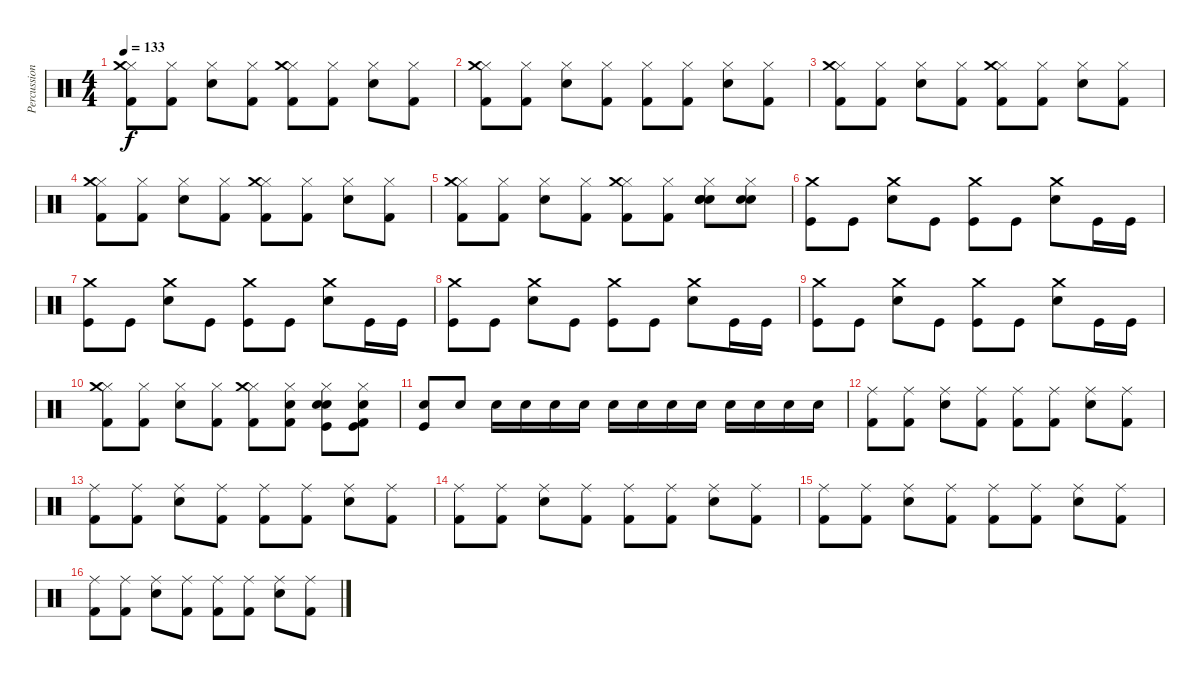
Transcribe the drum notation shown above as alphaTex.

\track ("Percussion" "Percussion") {instrument percussion}
\staff {score}
\articulation defaults
\ts (4 4)
\tempo 133
\clef neutral
\ks c
("Hi-Hat (closed)" "Kick (hit) 2" "Crash medium (hit)").8{dy f} ("Hi-Hat (closed)" "Kick (hit) 2").8 ("Electric Snare (hit)" "Hi-Hat (closed)").8 ("Hi-Hat (closed)" "Kick (hit) 2").8 ("Hi-Hat (closed)" "Kick (hit) 2" "Crash medium (hit)").8 ("Hi-Hat (closed)" "Kick (hit) 2").8 ("Electric Snare (hit)" "Hi-Hat (closed)").8 ("Hi-Hat (closed)" "Kick (hit) 2").8 |
("Hi-Hat (closed)" "Kick (hit) 2" "Crash medium (hit)").8 ("Hi-Hat (closed)" "Kick (hit) 2").8 ("Electric Snare (hit)" "Hi-Hat (closed)").8 ("Hi-Hat (closed)" "Kick (hit) 2").8 ("Hi-Hat (closed)" "Kick (hit) 2").8 ("Hi-Hat (closed)" "Kick (hit) 2").8 ("Electric Snare (hit)" "Hi-Hat (closed)").8 ("Hi-Hat (closed)" "Kick (hit) 2").8 |
("Hi-Hat (closed)" "Kick (hit) 2" "Crash medium (hit)").8 ("Hi-Hat (closed)" "Kick (hit) 2").8 ("Electric Snare (hit)" "Hi-Hat (closed)").8 ("Hi-Hat (closed)" "Kick (hit) 2").8 ("Hi-Hat (closed)" "Kick (hit) 2" "Crash medium (hit)").8 ("Hi-Hat (closed)" "Kick (hit) 2").8 ("Electric Snare (hit)" "Hi-Hat (closed)").8 ("Hi-Hat (closed)" "Kick (hit) 2").8 |
("Hi-Hat (closed)" "Kick (hit) 2" "Crash medium (hit)").8 ("Hi-Hat (closed)" "Kick (hit) 2").8 ("Electric Snare (hit)" "Hi-Hat (closed)").8 ("Hi-Hat (closed)" "Kick (hit) 2").8 ("Hi-Hat (closed)" "Kick (hit) 2" "Crash medium (hit)").8 ("Hi-Hat (closed)" "Kick (hit) 2").8 ("Electric Snare (hit)" "Hi-Hat (closed)").8 ("Hi-Hat (closed)" "Kick (hit) 2").8 |
("Hi-Hat (closed)" "Kick (hit) 2" "Crash medium (hit)").8 ("Hi-Hat (closed)" "Kick (hit) 2").8 ("Electric Snare (hit)" "Hi-Hat (closed)").8 ("Hi-Hat (closed)" "Kick (hit) 2").8 ("Hi-Hat (closed)" "Kick (hit) 2" "Crash medium (hit)").8 ("Hi-Hat (closed)" "Kick (hit) 2").8 ("Electric Snare (hit)" "Hi-Hat (closed)" "Snare (hit) 2" "Electric Snare (hit)").8 ("Hi-Hat (closed)" "Snare (hit) 2" "Electric Snare (hit)").8 |
("Crash medium (hit)" "Kick (hit)").8 "Kick (hit)".8 ("Crash medium (hit)" "Snare (hit) 2").8 "Kick (hit)".8 ("Crash medium (hit)" "Kick (hit)").8 "Kick (hit)".8 ("Crash medium (hit)" "Snare (hit) 2").8 "Kick (hit)".16 "Kick (hit)".16 |
("Crash medium (hit)" "Kick (hit)").8 "Kick (hit)".8 ("Crash medium (hit)" "Snare (hit) 2").8 "Kick (hit)".8 ("Crash medium (hit)" "Kick (hit)").8 "Kick (hit)".8 ("Crash medium (hit)" "Snare (hit) 2").8 "Kick (hit)".16 "Kick (hit)".16 |
("Crash medium (hit)" "Kick (hit)").8 "Kick (hit)".8 ("Crash medium (hit)" "Snare (hit) 2").8 "Kick (hit)".8 ("Crash medium (hit)" "Kick (hit)").8 "Kick (hit)".8 ("Crash medium (hit)" "Snare (hit) 2").8 "Kick (hit)".16 "Kick (hit)".16 |
("Crash medium (hit)" "Kick (hit)").8 "Kick (hit)".8 ("Crash medium (hit)" "Snare (hit) 2").8 "Kick (hit)".8 ("Crash medium (hit)" "Kick (hit)").8 "Kick (hit)".8 ("Crash medium (hit)" "Snare (hit) 2").8 "Kick (hit)".16 "Kick (hit)".16 |
("Hi-Hat (closed)" "Kick (hit) 2" "Crash medium (hit)").8 ("Hi-Hat (closed)" "Kick (hit) 2").8 ("Electric Snare (hit)" "Hi-Hat (closed)").8 ("Hi-Hat (closed)" "Kick (hit) 2").8 ("Hi-Hat (closed)" "Kick (hit) 2" "Crash medium (hit)").8 ("Hi-Hat (closed)" "Kick (hit) 2" "Snare (hit) 2").8 ("Electric Snare (hit)" "Hi-Hat (closed)" "Kick (hit)" "Snare (hit) 2").8 ("Hi-Hat (closed)" "Kick (hit) 2" "Kick (hit)" "Snare (hit) 2").8 |
("Snare (hit) 2" "Kick (hit)").8 "Snare (hit) 2".8 "Snare (hit) 2".16 "Snare (hit) 2".16 "Snare (hit) 2".16 "Snare (hit) 2".16 "Snare (hit) 2".16 "Snare (hit) 2".16 "Snare (hit) 2".16 "Snare (hit) 2".16 "Snare (hit) 2".16 "Snare (hit) 2".16 "Snare (hit) 2".16 "Snare (hit) 2".16 |
("Ride (middle)" "Kick (hit) 2").8 ("Ride (middle)" "Kick (hit) 2").8 ("Electric Snare (hit)" "Ride (middle)").8 ("Ride (middle)" "Kick (hit) 2").8 ("Ride (middle)" "Kick (hit) 2").8 ("Ride (middle)" "Kick (hit) 2").8 ("Electric Snare (hit)" "Ride (middle)").8 ("Ride (middle)" "Kick (hit) 2").8 |
("Ride (middle)" "Kick (hit) 2").8 ("Ride (middle)" "Kick (hit) 2").8 ("Electric Snare (hit)" "Ride (middle)").8 ("Ride (middle)" "Kick (hit) 2").8 ("Ride (middle)" "Kick (hit) 2").8 ("Ride (middle)" "Kick (hit) 2").8 ("Electric Snare (hit)" "Ride (middle)").8 ("Ride (middle)" "Kick (hit) 2").8 |
("Ride (middle)" "Kick (hit) 2").8 ("Ride (middle)" "Kick (hit) 2").8 ("Electric Snare (hit)" "Ride (middle)").8 ("Ride (middle)" "Kick (hit) 2").8 ("Ride (middle)" "Kick (hit) 2").8 ("Ride (middle)" "Kick (hit) 2").8 ("Electric Snare (hit)" "Ride (middle)").8 ("Ride (middle)" "Kick (hit) 2").8 |
("Ride (middle)" "Kick (hit) 2").8 ("Ride (middle)" "Kick (hit) 2").8 ("Electric Snare (hit)" "Ride (middle)").8 ("Ride (middle)" "Kick (hit) 2").8 ("Ride (middle)" "Kick (hit) 2").8 ("Ride (middle)" "Kick (hit) 2").8 ("Electric Snare (hit)" "Ride (middle)").8 ("Ride (middle)" "Kick (hit) 2").8 |
("Ride (middle)" "Kick (hit) 2").8 ("Ride (middle)" "Kick (hit) 2").8 ("Electric Snare (hit)" "Ride (middle)").8 ("Ride (middle)" "Kick (hit) 2").8 ("Ride (middle)" "Kick (hit) 2").8 ("Ride (middle)" "Kick (hit) 2").8 ("Electric Snare (hit)" "Ride (middle)").8 ("Ride (middle)" "Kick (hit) 2").8
